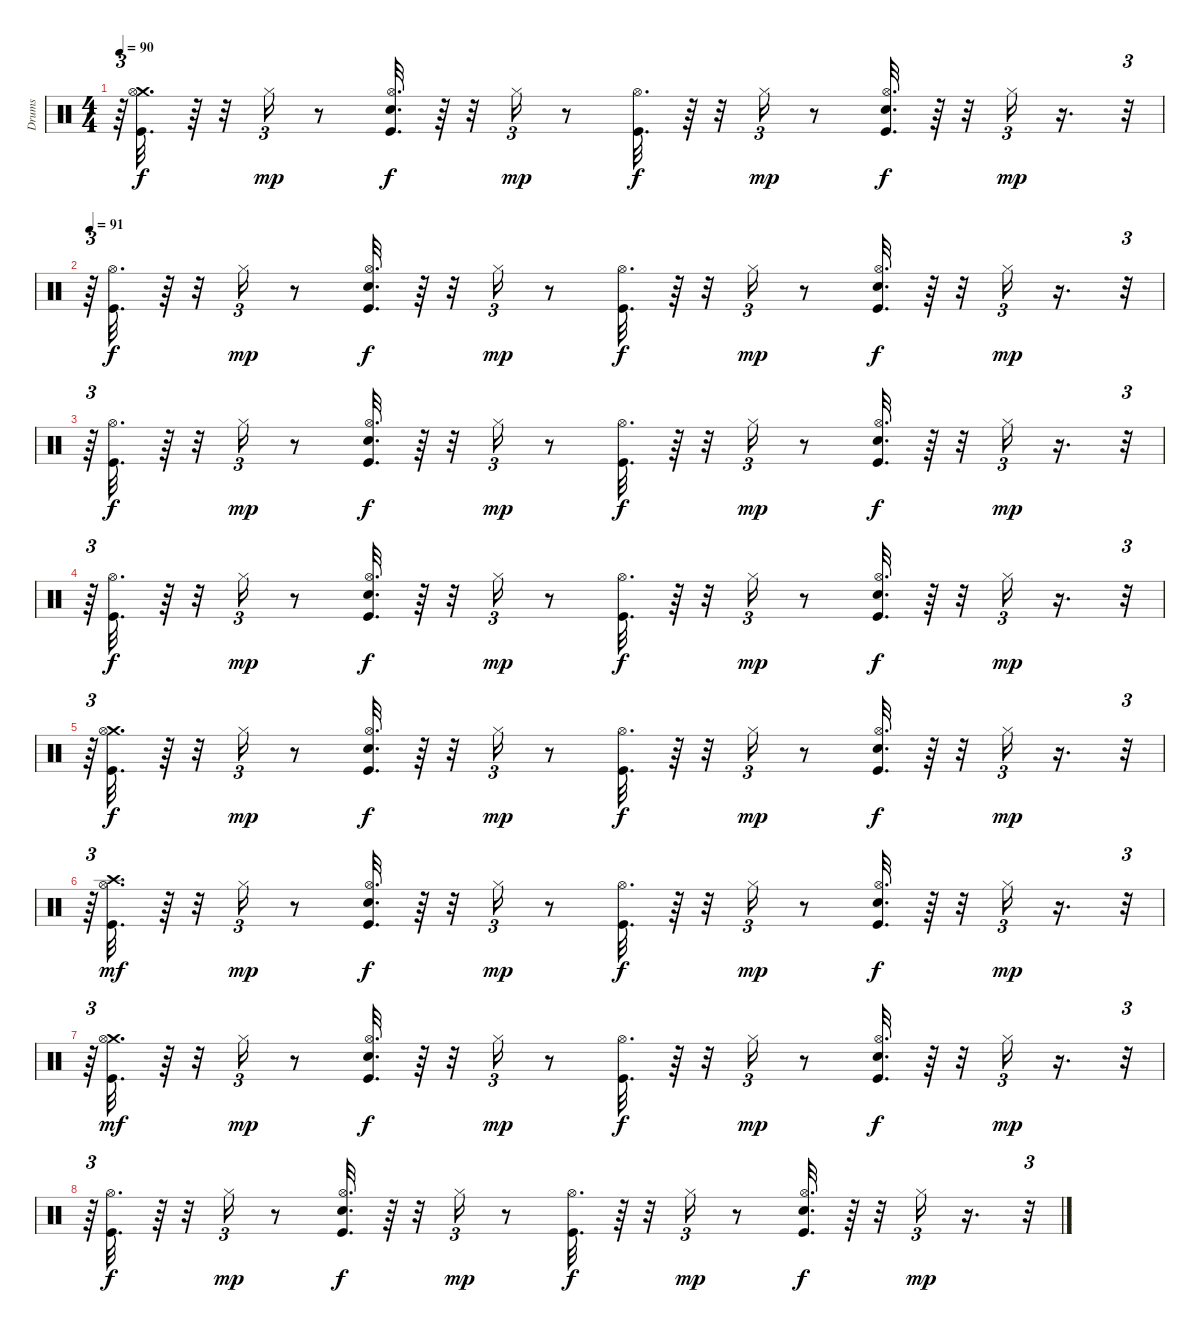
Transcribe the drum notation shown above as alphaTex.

\track ("Drums" "Drums") {instrument percussion}
\staff {score}
\articulation defaults
\ts (4 4)
\tempo 90
\clef neutral
\ks c
r.64{tu (3 2) dy f} ("Crash medium (hit)" "Kick (hit)" "Hi-Hat (open)").32{d} r.64 r.32 "Hi-Hat (closed)".16{tu (3 2) dy mp} r.8 ("Kick (hit)" "Hi-Hat (open)" "Snare (hit) 2").32{d dy f} r.64 r.32 "Hi-Hat (closed)".16{tu (3 2) dy mp} r.8 ("Hi-Hat (open)" "Kick (hit)").32{d dy f} r.64 r.32 "Hi-Hat (closed)".16{tu (3 2) dy mp} r.8 ("Kick (hit)" "Snare (hit) 2" "Hi-Hat (open)").32{d dy f} r.64 r.32 "Hi-Hat (closed)".16{tu (3 2) dy mp} r.16{d} r.32{tu (3 2)} |
\tempo 91
r.64{tu (3 2)} ("Kick (hit)" "Hi-Hat (open)").32{d dy f} r.64 r.32 "Hi-Hat (closed)".16{tu (3 2) dy mp} r.8 ("Kick (hit)" "Hi-Hat (open)" "Snare (hit) 2").32{d dy f} r.64 r.32 "Hi-Hat (closed)".16{tu (3 2) dy mp} r.8 ("Hi-Hat (open)" "Kick (hit)").32{d dy f} r.64 r.32 "Hi-Hat (closed)".16{tu (3 2) dy mp} r.8 ("Kick (hit)" "Snare (hit) 2" "Hi-Hat (open)").32{d dy f} r.64 r.32 "Hi-Hat (closed)".16{tu (3 2) dy mp} r.16{d} r.32{tu (3 2)} |
r.64{tu (3 2)} ("Kick (hit)" "Hi-Hat (open)").32{d dy f} r.64 r.32 "Hi-Hat (closed)".16{tu (3 2) dy mp} r.8 ("Kick (hit)" "Hi-Hat (open)" "Snare (hit) 2").32{d dy f} r.64 r.32 "Hi-Hat (closed)".16{tu (3 2) dy mp} r.8 ("Hi-Hat (open)" "Kick (hit)").32{d dy f} r.64 r.32 "Hi-Hat (closed)".16{tu (3 2) dy mp} r.8 ("Kick (hit)" "Snare (hit) 2" "Hi-Hat (open)").32{d dy f} r.64 r.32 "Hi-Hat (closed)".16{tu (3 2) dy mp} r.16{d} r.32{tu (3 2)} |
r.64{tu (3 2)} ("Kick (hit)" "Hi-Hat (open)").32{d dy f} r.64 r.32 "Hi-Hat (closed)".16{tu (3 2) dy mp} r.8 ("Kick (hit)" "Hi-Hat (open)" "Snare (hit) 2").32{d dy f} r.64 r.32 "Hi-Hat (closed)".16{tu (3 2) dy mp} r.8 ("Hi-Hat (open)" "Kick (hit)").32{d dy f} r.64 r.32 "Hi-Hat (closed)".16{tu (3 2) dy mp} r.8 ("Kick (hit)" "Snare (hit) 2" "Hi-Hat (open)").32{d dy f} r.64 r.32 "Hi-Hat (closed)".16{tu (3 2) dy mp} r.16{d} r.32{tu (3 2)} |
r.64{tu (3 2)} ("Crash medium (hit)" "Kick (hit)" "Hi-Hat (open)").32{d dy f} r.64 r.32 "Hi-Hat (closed)".16{tu (3 2) dy mp} r.8 ("Kick (hit)" "Hi-Hat (open)" "Snare (hit) 2").32{d dy f} r.64 r.32 "Hi-Hat (closed)".16{tu (3 2) dy mp} r.8 ("Hi-Hat (open)" "Kick (hit)").32{d dy f} r.64 r.32 "Hi-Hat (closed)".16{tu (3 2) dy mp} r.8 ("Kick (hit)" "Snare (hit) 2" "Hi-Hat (open)").32{d dy f} r.64 r.32 "Hi-Hat (closed)".16{tu (3 2) dy mp} r.16{d} r.32{tu (3 2)} |
r.64{tu (3 2)} ("Crash high (hit)" "Kick (hit)" "Hi-Hat (open)").32{d dy mf} r.64 r.32 "Hi-Hat (closed)".16{tu (3 2) dy mp} r.8 ("Kick (hit)" "Hi-Hat (open)" "Snare (hit) 2").32{d dy f} r.64 r.32 "Hi-Hat (closed)".16{tu (3 2) dy mp} r.8 ("Hi-Hat (open)" "Kick (hit)").32{d dy f} r.64 r.32 "Hi-Hat (closed)".16{tu (3 2) dy mp} r.8 ("Kick (hit)" "Snare (hit) 2" "Hi-Hat (open)").32{d dy f} r.64 r.32 "Hi-Hat (closed)".16{tu (3 2) dy mp} r.16{d} r.32{tu (3 2)} |
r.64{tu (3 2)} ("Crash medium (hit)" "Kick (hit)" "Hi-Hat (open)").32{d dy mf} r.64 r.32 "Hi-Hat (closed)".16{tu (3 2) dy mp} r.8 ("Kick (hit)" "Hi-Hat (open)" "Snare (hit) 2").32{d dy f} r.64 r.32 "Hi-Hat (closed)".16{tu (3 2) dy mp} r.8 ("Hi-Hat (open)" "Kick (hit)").32{d dy f} r.64 r.32 "Hi-Hat (closed)".16{tu (3 2) dy mp} r.8 ("Kick (hit)" "Snare (hit) 2" "Hi-Hat (open)").32{d dy f} r.64 r.32 "Hi-Hat (closed)".16{tu (3 2) dy mp} r.16{d} r.32{tu (3 2)} |
r.64{tu (3 2)} ("Kick (hit)" "Hi-Hat (open)").32{d dy f} r.64 r.32 "Hi-Hat (closed)".16{tu (3 2) dy mp} r.8 ("Kick (hit)" "Hi-Hat (open)" "Snare (hit) 2").32{d dy f} r.64 r.32 "Hi-Hat (closed)".16{tu (3 2) dy mp} r.8 ("Hi-Hat (open)" "Kick (hit)").32{d dy f} r.64 r.32 "Hi-Hat (closed)".16{tu (3 2) dy mp} r.8 ("Kick (hit)" "Snare (hit) 2" "Hi-Hat (open)").32{d dy f} r.64 r.32 "Hi-Hat (closed)".16{tu (3 2) dy mp} r.16{d} r.32{tu (3 2)}
